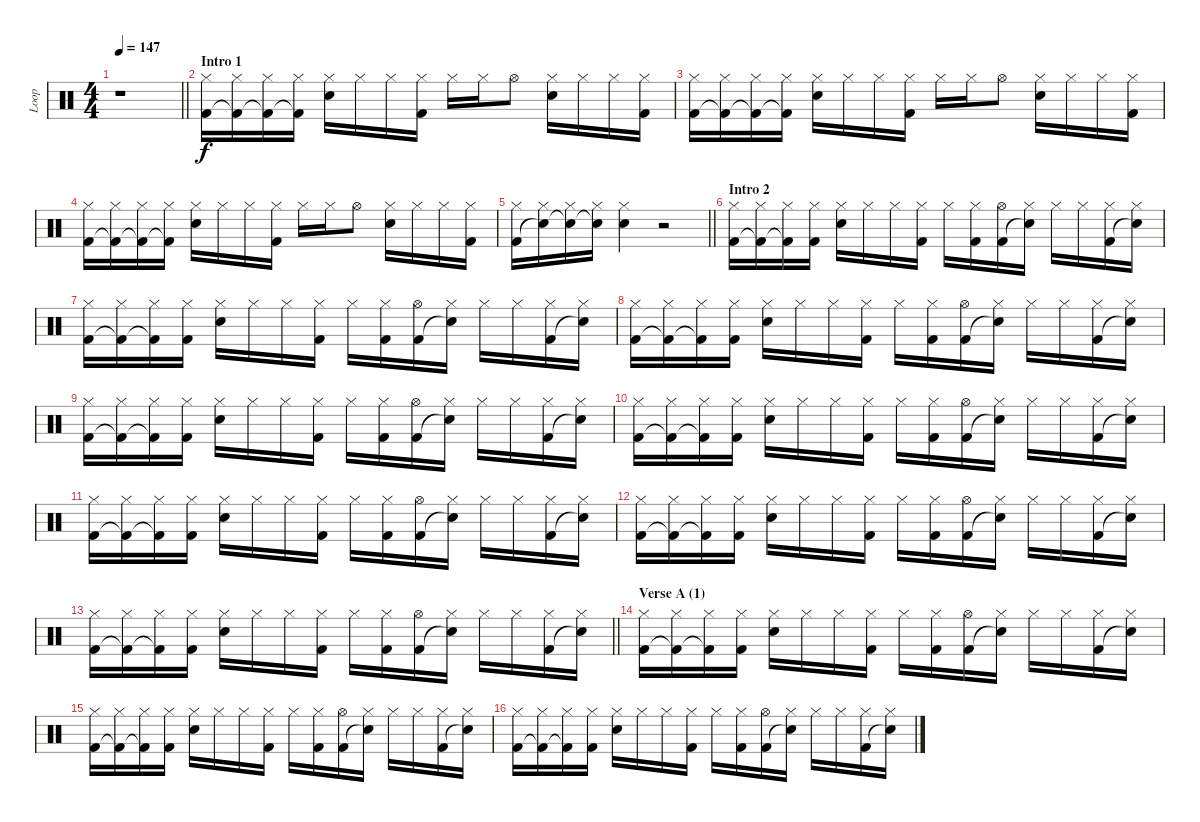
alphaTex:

\track ("Loop" "Loop") {instrument percussion}
\staff {score}
\articulation defaults
\ts (4 4)
\tempo 147
\clef neutral
\barLineRight lightlight
\ks aminor
r.1{dy f} |
\section ("" "Intro 1")
("Hi-Hat (closed)" "Kick (hit) 2").16 ("Hi-Hat (closed)" "Kick (hit) 2"{t}).16 ("Hi-Hat (closed)" "Kick (hit) 2"{t}).16 ("Hi-Hat (closed)" "Kick (hit) 2"{t}).16 ("Hi-Hat (closed)" "Electric Snare (hit)").16 "Hi-Hat (closed)".16 "Hi-Hat (closed)".16 ("Hi-Hat (closed)" "Kick (hit) 2").16 "Hi-Hat (closed)".16 "Hi-Hat (closed)".16 "Hi-Hat (open)".8 ("Hi-Hat (closed)" "Electric Snare (hit)").16 "Hi-Hat (closed)".16 "Hi-Hat (closed)".16 ("Hi-Hat (closed)" "Kick (hit) 2").16 |
("Hi-Hat (closed)" "Kick (hit) 2").16 ("Hi-Hat (closed)" "Kick (hit) 2"{t}).16 ("Hi-Hat (closed)" "Kick (hit) 2"{t}).16 ("Hi-Hat (closed)" "Kick (hit) 2"{t}).16 ("Hi-Hat (closed)" "Electric Snare (hit)").16 "Hi-Hat (closed)".16 "Hi-Hat (closed)".16 ("Hi-Hat (closed)" "Kick (hit) 2").16 "Hi-Hat (closed)".16 "Hi-Hat (closed)".16 "Hi-Hat (open)".8 ("Hi-Hat (closed)" "Electric Snare (hit)").16 "Hi-Hat (closed)".16 "Hi-Hat (closed)".16 ("Hi-Hat (closed)" "Kick (hit) 2").16 |
("Hi-Hat (closed)" "Kick (hit) 2").16 ("Hi-Hat (closed)" "Kick (hit) 2"{t}).16 ("Hi-Hat (closed)" "Kick (hit) 2"{t}).16 ("Hi-Hat (closed)" "Kick (hit) 2"{t}).16 ("Hi-Hat (closed)" "Electric Snare (hit)").16 "Hi-Hat (closed)".16 "Hi-Hat (closed)".16 ("Hi-Hat (closed)" "Kick (hit) 2").16 "Hi-Hat (closed)".16 "Hi-Hat (closed)".16 "Hi-Hat (open)".8 ("Hi-Hat (closed)" "Electric Snare (hit)").16 "Hi-Hat (closed)".16 "Hi-Hat (closed)".16 ("Hi-Hat (closed)" "Kick (hit) 2").16 |
\barLineRight lightlight
("Hi-Hat (closed)" "Kick (hit) 2").16 ("Hi-Hat (closed)" "Snare (hit)"{t}).16 ("Hi-Hat (closed)" "Snare (hit)"{t}).16 ("Hi-Hat (closed)" "Snare (hit)"{t}).16 ("Hi-Hat (closed)" "Electric Snare (hit)").4 r.2 |
\section ("" "Intro 2")
("Hi-Hat (closed)" "Kick (hit) 2").16 ("Hi-Hat (closed)" "Kick (hit) 2"{t}).16 ("Hi-Hat (closed)" "Kick (hit) 2"{t}).16 ("Hi-Hat (closed)" "Kick (hit) 2").16 ("Hi-Hat (closed)" "Electric Snare (hit)").16 "Hi-Hat (closed)".16 "Hi-Hat (closed)".16 ("Hi-Hat (closed)" "Kick (hit) 2").16 "Hi-Hat (closed)".16 ("Hi-Hat (closed)" "Kick (hit) 2").16 ("Hi-Hat (open)" "Kick (hit) 2").16 ("Hi-Hat (closed)" "Snare (hit)"{t}).16 "Hi-Hat (closed)".16 "Hi-Hat (closed)".16 ("Hi-Hat (closed)" "Kick (hit) 2").16 ("Hi-Hat (closed)" "Snare (hit)"{t}).16 |
("Hi-Hat (closed)" "Kick (hit) 2").16 ("Hi-Hat (closed)" "Kick (hit) 2"{t}).16 ("Hi-Hat (closed)" "Kick (hit) 2"{t}).16 ("Hi-Hat (closed)" "Kick (hit) 2").16 ("Hi-Hat (closed)" "Electric Snare (hit)").16 "Hi-Hat (closed)".16 "Hi-Hat (closed)".16 ("Hi-Hat (closed)" "Kick (hit) 2").16 "Hi-Hat (closed)".16 ("Hi-Hat (closed)" "Kick (hit) 2").16 ("Hi-Hat (open)" "Kick (hit) 2").16 ("Hi-Hat (closed)" "Snare (hit)"{t}).16 "Hi-Hat (closed)".16 "Hi-Hat (closed)".16 ("Hi-Hat (closed)" "Kick (hit) 2").16 ("Hi-Hat (closed)" "Snare (hit)"{t}).16 |
("Hi-Hat (closed)" "Kick (hit) 2").16 ("Hi-Hat (closed)" "Kick (hit) 2"{t}).16 ("Hi-Hat (closed)" "Kick (hit) 2"{t}).16 ("Hi-Hat (closed)" "Kick (hit) 2").16 ("Hi-Hat (closed)" "Electric Snare (hit)").16 "Hi-Hat (closed)".16 "Hi-Hat (closed)".16 ("Hi-Hat (closed)" "Kick (hit) 2").16 "Hi-Hat (closed)".16 ("Hi-Hat (closed)" "Kick (hit) 2").16 ("Hi-Hat (open)" "Kick (hit) 2").16 ("Hi-Hat (closed)" "Snare (hit)"{t}).16 "Hi-Hat (closed)".16 "Hi-Hat (closed)".16 ("Hi-Hat (closed)" "Kick (hit) 2").16 ("Hi-Hat (closed)" "Snare (hit)"{t}).16 |
("Hi-Hat (closed)" "Kick (hit) 2").16 ("Hi-Hat (closed)" "Kick (hit) 2"{t}).16 ("Hi-Hat (closed)" "Kick (hit) 2"{t}).16 ("Hi-Hat (closed)" "Kick (hit) 2").16 ("Hi-Hat (closed)" "Electric Snare (hit)").16 "Hi-Hat (closed)".16 "Hi-Hat (closed)".16 ("Hi-Hat (closed)" "Kick (hit) 2").16 "Hi-Hat (closed)".16 ("Hi-Hat (closed)" "Kick (hit) 2").16 ("Hi-Hat (open)" "Kick (hit) 2").16 ("Hi-Hat (closed)" "Snare (hit)"{t}).16 "Hi-Hat (closed)".16 "Hi-Hat (closed)".16 ("Hi-Hat (closed)" "Kick (hit) 2").16 ("Hi-Hat (closed)" "Snare (hit)"{t}).16 |
("Hi-Hat (closed)" "Kick (hit) 2").16 ("Hi-Hat (closed)" "Kick (hit) 2"{t}).16 ("Hi-Hat (closed)" "Kick (hit) 2"{t}).16 ("Hi-Hat (closed)" "Kick (hit) 2").16 ("Hi-Hat (closed)" "Electric Snare (hit)").16 "Hi-Hat (closed)".16 "Hi-Hat (closed)".16 ("Hi-Hat (closed)" "Kick (hit) 2").16 "Hi-Hat (closed)".16 ("Hi-Hat (closed)" "Kick (hit) 2").16 ("Hi-Hat (open)" "Kick (hit) 2").16 ("Hi-Hat (closed)" "Snare (hit)"{t}).16 "Hi-Hat (closed)".16 "Hi-Hat (closed)".16 ("Hi-Hat (closed)" "Kick (hit) 2").16 ("Hi-Hat (closed)" "Snare (hit)"{t}).16 |
("Hi-Hat (closed)" "Kick (hit) 2").16 ("Hi-Hat (closed)" "Kick (hit) 2"{t}).16 ("Hi-Hat (closed)" "Kick (hit) 2"{t}).16 ("Hi-Hat (closed)" "Kick (hit) 2").16 ("Hi-Hat (closed)" "Electric Snare (hit)").16 "Hi-Hat (closed)".16 "Hi-Hat (closed)".16 ("Hi-Hat (closed)" "Kick (hit) 2").16 "Hi-Hat (closed)".16 ("Hi-Hat (closed)" "Kick (hit) 2").16 ("Hi-Hat (open)" "Kick (hit) 2").16 ("Hi-Hat (closed)" "Snare (hit)"{t}).16 "Hi-Hat (closed)".16 "Hi-Hat (closed)".16 ("Hi-Hat (closed)" "Kick (hit) 2").16 ("Hi-Hat (closed)" "Snare (hit)"{t}).16 |
("Hi-Hat (closed)" "Kick (hit) 2").16 ("Hi-Hat (closed)" "Kick (hit) 2"{t}).16 ("Hi-Hat (closed)" "Kick (hit) 2"{t}).16 ("Hi-Hat (closed)" "Kick (hit) 2").16 ("Hi-Hat (closed)" "Electric Snare (hit)").16 "Hi-Hat (closed)".16 "Hi-Hat (closed)".16 ("Hi-Hat (closed)" "Kick (hit) 2").16 "Hi-Hat (closed)".16 ("Hi-Hat (closed)" "Kick (hit) 2").16 ("Hi-Hat (open)" "Kick (hit) 2").16 ("Hi-Hat (closed)" "Snare (hit)"{t}).16 "Hi-Hat (closed)".16 "Hi-Hat (closed)".16 ("Hi-Hat (closed)" "Kick (hit) 2").16 ("Hi-Hat (closed)" "Snare (hit)"{t}).16 |
\barLineRight lightlight
("Hi-Hat (closed)" "Kick (hit) 2").16 ("Hi-Hat (closed)" "Kick (hit) 2"{t}).16 ("Hi-Hat (closed)" "Kick (hit) 2"{t}).16 ("Hi-Hat (closed)" "Kick (hit) 2").16 ("Hi-Hat (closed)" "Electric Snare (hit)").16 "Hi-Hat (closed)".16 "Hi-Hat (closed)".16 ("Hi-Hat (closed)" "Kick (hit) 2").16 "Hi-Hat (closed)".16 ("Hi-Hat (closed)" "Kick (hit) 2").16 ("Hi-Hat (open)" "Kick (hit) 2").16 ("Hi-Hat (closed)" "Snare (hit)"{t}).16 "Hi-Hat (closed)".16 "Hi-Hat (closed)".16 ("Hi-Hat (closed)" "Kick (hit) 2").16 ("Hi-Hat (closed)" "Snare (hit)"{t}).16 |
\section ("" "Verse A (1)")
("Hi-Hat (closed)" "Kick (hit) 2").16 ("Hi-Hat (closed)" "Kick (hit) 2"{t}).16 ("Hi-Hat (closed)" "Kick (hit) 2"{t}).16 ("Hi-Hat (closed)" "Kick (hit) 2").16 ("Hi-Hat (closed)" "Electric Snare (hit)").16 "Hi-Hat (closed)".16 "Hi-Hat (closed)".16 ("Hi-Hat (closed)" "Kick (hit) 2").16 "Hi-Hat (closed)".16 ("Hi-Hat (closed)" "Kick (hit) 2").16 ("Hi-Hat (open)" "Kick (hit) 2").16 ("Hi-Hat (closed)" "Snare (hit)"{t}).16 "Hi-Hat (closed)".16 "Hi-Hat (closed)".16 ("Hi-Hat (closed)" "Kick (hit) 2").16 ("Hi-Hat (closed)" "Snare (hit)"{t}).16 |
("Hi-Hat (closed)" "Kick (hit) 2").16 ("Hi-Hat (closed)" "Kick (hit) 2"{t}).16 ("Hi-Hat (closed)" "Kick (hit) 2"{t}).16 ("Hi-Hat (closed)" "Kick (hit) 2").16 ("Hi-Hat (closed)" "Electric Snare (hit)").16 "Hi-Hat (closed)".16 "Hi-Hat (closed)".16 ("Hi-Hat (closed)" "Kick (hit) 2").16 "Hi-Hat (closed)".16 ("Hi-Hat (closed)" "Kick (hit) 2").16 ("Hi-Hat (open)" "Kick (hit) 2").16 ("Hi-Hat (closed)" "Snare (hit)"{t}).16 "Hi-Hat (closed)".16 "Hi-Hat (closed)".16 ("Hi-Hat (closed)" "Kick (hit) 2").16 ("Hi-Hat (closed)" "Snare (hit)"{t}).16 |
("Hi-Hat (closed)" "Kick (hit) 2").16 ("Hi-Hat (closed)" "Kick (hit) 2"{t}).16 ("Hi-Hat (closed)" "Kick (hit) 2"{t}).16 ("Hi-Hat (closed)" "Kick (hit) 2").16 ("Hi-Hat (closed)" "Electric Snare (hit)").16 "Hi-Hat (closed)".16 "Hi-Hat (closed)".16 ("Hi-Hat (closed)" "Kick (hit) 2").16 "Hi-Hat (closed)".16 ("Hi-Hat (closed)" "Kick (hit) 2").16 ("Hi-Hat (open)" "Kick (hit) 2").16 ("Hi-Hat (closed)" "Snare (hit)"{t}).16 "Hi-Hat (closed)".16 "Hi-Hat (closed)".16 ("Hi-Hat (closed)" "Kick (hit) 2").16 ("Hi-Hat (closed)" "Snare (hit)"{t}).16
